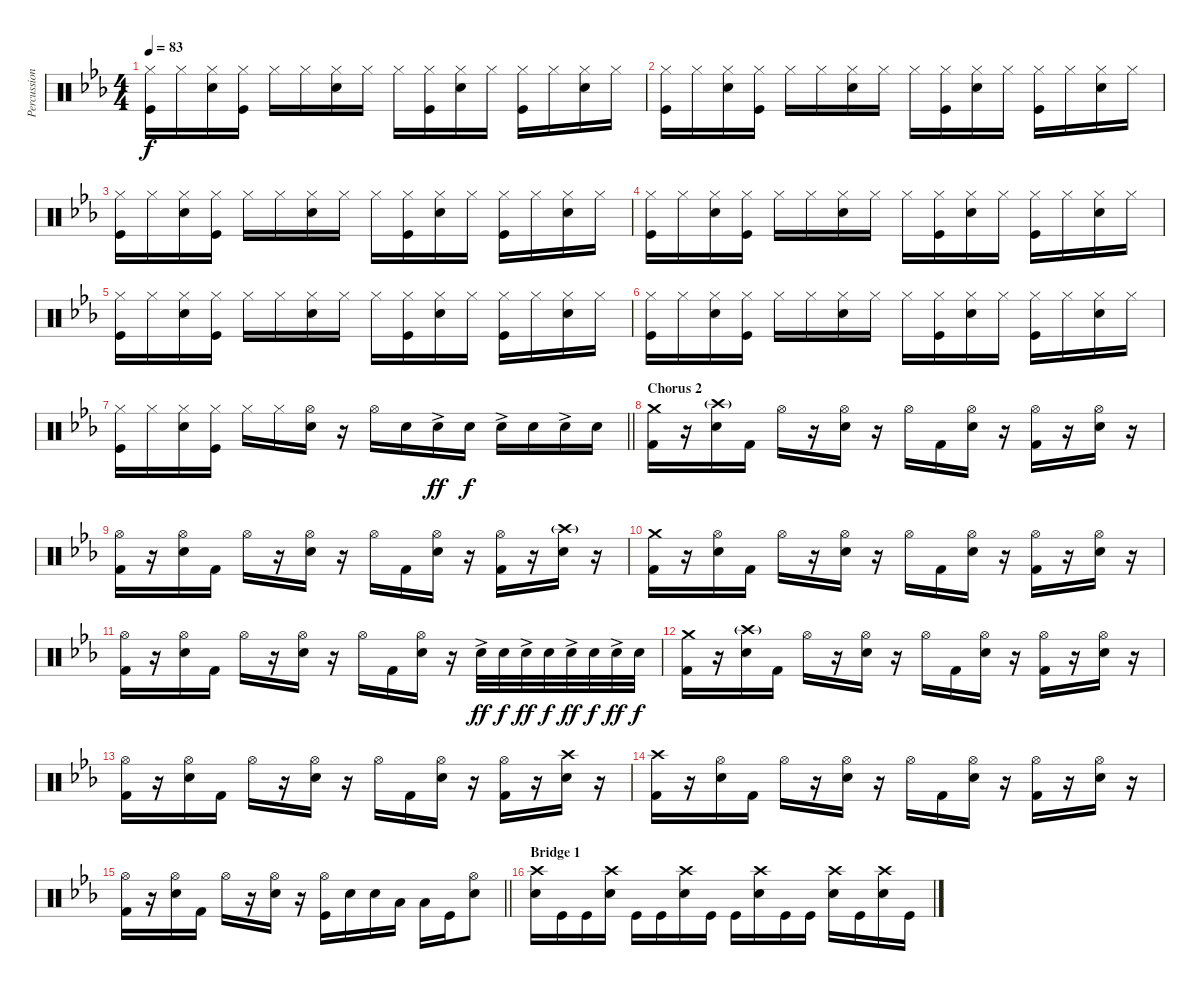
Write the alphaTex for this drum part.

\track ("Percussion" "Percussion") {instrument percussion}
\staff {score}
\articulation defaults
\ts (4 4)
\tempo 83
\clef neutral
\ks cminor
("Hi-Hat (closed)" "Kick (hit)").16{dy f} "Hi-Hat (closed)".16 ("Hi-Hat (closed)" "Electric Snare (hit)").16 ("Hi-Hat (closed)" "Kick (hit)").16 "Hi-Hat (closed)".16 "Hi-Hat (closed)".16 ("Hi-Hat (closed)" "Electric Snare (hit)").16 "Hi-Hat (closed)".16 "Hi-Hat (closed)".16 ("Hi-Hat (closed)" "Kick (hit)").16 ("Hi-Hat (closed)" "Electric Snare (hit)").16 "Hi-Hat (closed)".16 ("Hi-Hat (closed)" "Kick (hit)").16 "Hi-Hat (closed)".16 ("Hi-Hat (closed)" "Electric Snare (hit)").16 "Hi-Hat (closed)".16 |
("Hi-Hat (closed)" "Kick (hit)").16 "Hi-Hat (closed)".16 ("Hi-Hat (closed)" "Electric Snare (hit)").16 ("Hi-Hat (closed)" "Kick (hit)").16 "Hi-Hat (closed)".16 "Hi-Hat (closed)".16 ("Hi-Hat (closed)" "Electric Snare (hit)").16 "Hi-Hat (closed)".16 "Hi-Hat (closed)".16 ("Hi-Hat (closed)" "Kick (hit)").16 ("Hi-Hat (closed)" "Electric Snare (hit)").16 "Hi-Hat (closed)".16 ("Hi-Hat (closed)" "Kick (hit)").16 "Hi-Hat (closed)".16 ("Hi-Hat (closed)" "Electric Snare (hit)").16 "Hi-Hat (closed)".16 |
("Hi-Hat (closed)" "Kick (hit)").16 "Hi-Hat (closed)".16 ("Hi-Hat (closed)" "Electric Snare (hit)").16 ("Hi-Hat (closed)" "Kick (hit)").16 "Hi-Hat (closed)".16 "Hi-Hat (closed)".16 ("Hi-Hat (closed)" "Electric Snare (hit)").16 "Hi-Hat (closed)".16 "Hi-Hat (closed)".16 ("Hi-Hat (closed)" "Kick (hit)").16 ("Hi-Hat (closed)" "Electric Snare (hit)").16 "Hi-Hat (closed)".16 ("Hi-Hat (closed)" "Kick (hit)").16 "Hi-Hat (closed)".16 ("Hi-Hat (closed)" "Electric Snare (hit)").16 "Hi-Hat (closed)".16 |
("Hi-Hat (closed)" "Kick (hit)").16 "Hi-Hat (closed)".16 ("Hi-Hat (closed)" "Electric Snare (hit)").16 ("Hi-Hat (closed)" "Kick (hit)").16 "Hi-Hat (closed)".16 "Hi-Hat (closed)".16 ("Hi-Hat (closed)" "Electric Snare (hit)").16 "Hi-Hat (closed)".16 "Hi-Hat (closed)".16 ("Hi-Hat (closed)" "Kick (hit)").16 ("Hi-Hat (closed)" "Electric Snare (hit)").16 "Hi-Hat (closed)".16 ("Hi-Hat (closed)" "Kick (hit)").16 "Hi-Hat (closed)".16 ("Hi-Hat (closed)" "Electric Snare (hit)").16 "Hi-Hat (closed)".16 |
("Hi-Hat (closed)" "Kick (hit)").16 "Hi-Hat (closed)".16 ("Hi-Hat (closed)" "Electric Snare (hit)").16 ("Hi-Hat (closed)" "Kick (hit)").16 "Hi-Hat (closed)".16 "Hi-Hat (closed)".16 ("Hi-Hat (closed)" "Electric Snare (hit)").16 "Hi-Hat (closed)".16 "Hi-Hat (closed)".16 ("Hi-Hat (closed)" "Kick (hit)").16 ("Hi-Hat (closed)" "Electric Snare (hit)").16 "Hi-Hat (closed)".16 ("Hi-Hat (closed)" "Kick (hit)").16 "Hi-Hat (closed)".16 ("Hi-Hat (closed)" "Electric Snare (hit)").16 "Hi-Hat (closed)".16 |
("Hi-Hat (closed)" "Kick (hit)").16 "Hi-Hat (closed)".16 ("Hi-Hat (closed)" "Electric Snare (hit)").16 ("Hi-Hat (closed)" "Kick (hit)").16 "Hi-Hat (closed)".16 "Hi-Hat (closed)".16 ("Hi-Hat (closed)" "Electric Snare (hit)").16 "Hi-Hat (closed)".16 "Hi-Hat (closed)".16 ("Hi-Hat (closed)" "Kick (hit)").16 ("Hi-Hat (closed)" "Electric Snare (hit)").16 "Hi-Hat (closed)".16 ("Hi-Hat (closed)" "Kick (hit)").16 "Hi-Hat (closed)".16 ("Hi-Hat (closed)" "Electric Snare (hit)").16 "Hi-Hat (closed)".16 |
\barLineRight lightlight
("Hi-Hat (closed)" "Kick (hit)").16 "Hi-Hat (closed)".16 ("Hi-Hat (closed)" "Electric Snare (hit)").16 ("Hi-Hat (closed)" "Kick (hit)").16 "Hi-Hat (closed)".16 "Hi-Hat (closed)".16 ("Hi-Hat (open)" "Electric Snare (hit)").16 r.16 "Hi-Hat (open)".16 "Electric Snare (hit)".16 "Electric Snare (hit)"{ac}.16{dy ff} "Electric Snare (hit)".16{dy f} "Electric Snare (hit)"{ac}.16 "Electric Snare (hit)".16 "Electric Snare (hit)"{ac}.16 "Electric Snare (hit)".16 |
\section ("" "Chorus 2")
("Crash medium (hit)" "Kick (hit) 2").16 r.16 ("Crash high (hit)"{g} "Electric Snare (hit)").16 "Kick (hit) 2".16 "Hi-Hat (open)".16 r.16 ("Hi-Hat (open)" "Electric Snare (hit)").16 r.16 "Hi-Hat (open)".16 "Kick (hit) 2".16 ("Hi-Hat (open)" "Electric Snare (hit)").16 r.16 ("Hi-Hat (open)" "Kick (hit) 2").16 r.16 ("Hi-Hat (open)" "Electric Snare (hit)").16 r.16 |
("Hi-Hat (open)" "Kick (hit) 2").16 r.16 ("Hi-Hat (open)" "Electric Snare (hit)").16 "Kick (hit) 2".16 "Hi-Hat (open)".16 r.16 ("Hi-Hat (open)" "Electric Snare (hit)").16 r.16 "Hi-Hat (open)".16 "Kick (hit) 2".16 ("Hi-Hat (open)" "Electric Snare (hit)").16 r.16 ("Hi-Hat (open)" "Kick (hit) 2").16 r.16 ("Crash high (hit)"{g} "Electric Snare (hit)").16 r.16 |
("Crash medium (hit)" "Kick (hit) 2").16 r.16 ("Hi-Hat (open)" "Electric Snare (hit)").16 "Kick (hit) 2".16 "Hi-Hat (open)".16 r.16 ("Hi-Hat (open)" "Electric Snare (hit)").16 r.16 "Hi-Hat (open)".16 "Kick (hit) 2".16 ("Hi-Hat (open)" "Electric Snare (hit)").16 r.16 ("Hi-Hat (open)" "Kick (hit) 2").16 r.16 ("Hi-Hat (open)" "Electric Snare (hit)").16 r.16 |
("Hi-Hat (open)" "Kick (hit) 2").16 r.16 ("Hi-Hat (open)" "Electric Snare (hit)").16 "Kick (hit) 2".16 "Hi-Hat (open)".16 r.16 ("Hi-Hat (open)" "Electric Snare (hit)").16 r.16 "Hi-Hat (open)".16 "Kick (hit) 2".16 ("Hi-Hat (open)" "Electric Snare (hit)").16 r.16 "Electric Snare (hit)"{ac}.32{dy ff} "Electric Snare (hit)".32{dy f} "Electric Snare (hit)"{ac}.32{dy ff} "Electric Snare (hit)".32{dy f} "Electric Snare (hit)"{ac}.32{dy ff} "Electric Snare (hit)".32{dy f} "Electric Snare (hit)"{ac}.32{dy ff} "Electric Snare (hit)".32{dy f} |
("Crash medium (hit)" "Kick (hit) 2").16 r.16 ("Crash high (hit)"{g} "Electric Snare (hit)").16 "Kick (hit) 2".16 "Hi-Hat (open)".16 r.16 ("Hi-Hat (open)" "Electric Snare (hit)").16 r.16 "Hi-Hat (open)".16 "Kick (hit) 2".16 ("Hi-Hat (open)" "Electric Snare (hit)").16 r.16 ("Hi-Hat (open)" "Kick (hit) 2").16 r.16 ("Hi-Hat (open)" "Electric Snare (hit)").16 r.16 |
("Hi-Hat (open)" "Kick (hit) 2").16 r.16 ("Hi-Hat (open)" "Electric Snare (hit)").16 "Kick (hit) 2".16 "Hi-Hat (open)".16 r.16 ("Hi-Hat (open)" "Electric Snare (hit)").16 r.16 "Hi-Hat (open)".16 "Kick (hit) 2".16 ("Hi-Hat (open)" "Electric Snare (hit)").16 r.16 ("Hi-Hat (open)" "Kick (hit) 2").16 r.16 ("Crash high (hit)" "Electric Snare (hit)").16 r.16 |
("Crash high (hit)" "Kick (hit) 2").16 r.16 ("Hi-Hat (open)" "Electric Snare (hit)").16 "Kick (hit) 2".16 "Hi-Hat (open)".16 r.16 ("Hi-Hat (open)" "Electric Snare (hit)").16 r.16 "Hi-Hat (open)".16 "Kick (hit) 2".16 ("Hi-Hat (open)" "Electric Snare (hit)").16 r.16 ("Hi-Hat (open)" "Kick (hit) 2").16 r.16 ("Hi-Hat (open)" "Electric Snare (hit)").16 r.16 |
\barLineRight lightlight
("Hi-Hat (open)" "Kick (hit) 2").16 r.16 ("Hi-Hat (open)" "Electric Snare (hit)").16 "Kick (hit) 2".16 "Hi-Hat (open)".16 r.16 ("Hi-Hat (open)" "Electric Snare (hit)").16 r.16 ("Hi-Hat (open)" "Kick (hit)").16 "Electric Snare (hit)".16 "Electric Snare (hit)".16 "Low Tom (hit)".16 "Low Tom (hit)".16 "Kick (hit)".16 ("Hi-Hat (open)" "Electric Snare (hit)").8 |
\section ("" "Bridge 1")
("Crash high (hit)" "Electric Snare (hit)").16 "Kick (hit)".16 "Kick (hit)".16 ("Crash high (hit)" "Electric Snare (hit)").16 "Kick (hit)".16 "Kick (hit)".16 ("Crash high (hit)" "Electric Snare (hit)").16 "Kick (hit)".16 "Kick (hit)".16 ("Crash high (hit)" "Electric Snare (hit)").16 "Kick (hit)".16 "Kick (hit)".16 ("Crash high (hit)" "Electric Snare (hit)").16 "Kick (hit)".16 ("Crash high (hit)" "Electric Snare (hit)").16 "Kick (hit)".16
